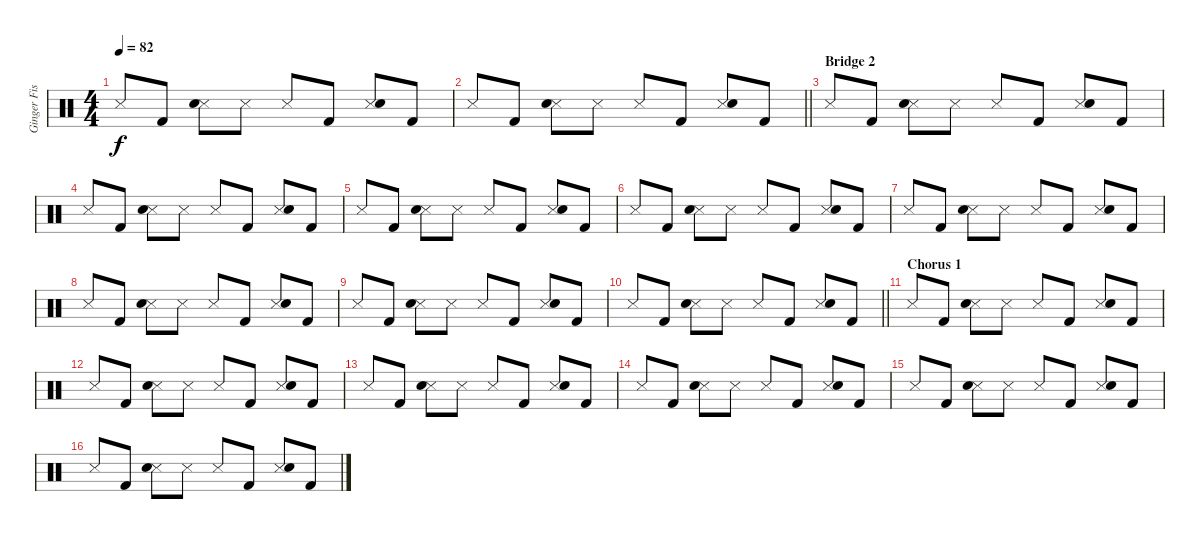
\track ("Ginger Fish" "Ginger Fis") {instrument percussion}
\staff {score}
\articulation defaults
\ts (4 4)
\tempo 82
\clef neutral
\ks c "Metronome (hit)".8{dy f} "Kick (hit) 2".8
("Metronome (hit)" "Snare (hit) 2").8 "Metronome (hit)".8 "Metronome (hit)".8 "Kick (hit) 2".8 ("Metronome (hit)" "Snare (hit) 2").8 "Kick (hit) 2".8 |
\barLineRight lightlight "Metronome (hit)".8 "Kick (hit) 2".8
("Metronome (hit)" "Snare (hit) 2").8 "Metronome (hit)".8 "Metronome (hit)".8 "Kick (hit) 2".8 ("Metronome (hit)" "Snare (hit) 2").8 "Kick (hit) 2".8 |
\section ("" "Bridge 2")
"Metronome (hit)".8 "Kick (hit) 2".8 ("Metronome (hit)" "Snare (hit) 2").8 "Metronome (hit)".8 "Metronome (hit)".8 "Kick (hit) 2".8 ("Metronome (hit)" "Snare (hit) 2").8 "Kick (hit) 2".8 |
"Metronome (hit)".8 "Kick (hit) 2".8 ("Metronome (hit)" "Snare (hit) 2").8 "Metronome (hit)".8 "Metronome (hit)".8 "Kick (hit) 2".8 ("Metronome (hit)" "Snare (hit) 2").8 "Kick (hit) 2".8 |
"Metronome (hit)".8 "Kick (hit) 2".8 ("Metronome (hit)" "Snare (hit) 2").8 "Metronome (hit)".8 "Metronome (hit)".8 "Kick (hit) 2".8 ("Metronome (hit)" "Snare (hit) 2").8 "Kick (hit) 2".8 |
"Metronome (hit)".8 "Kick (hit) 2".8 ("Metronome (hit)" "Snare (hit) 2").8 "Metronome (hit)".8 "Metronome (hit)".8 "Kick (hit) 2".8 ("Metronome (hit)" "Snare (hit) 2").8 "Kick (hit) 2".8 |
"Metronome (hit)".8 "Kick (hit) 2".8 ("Metronome (hit)" "Snare (hit) 2").8 "Metronome (hit)".8 "Metronome (hit)".8 "Kick (hit) 2".8 ("Metronome (hit)" "Snare (hit) 2").8 "Kick (hit) 2".8 |
"Metronome (hit)".8 "Kick (hit) 2".8 ("Metronome (hit)" "Snare (hit) 2").8 "Metronome (hit)".8 "Metronome (hit)".8 "Kick (hit) 2".8 ("Metronome (hit)" "Snare (hit) 2").8 "Kick (hit) 2".8 |
"Metronome (hit)".8 "Kick (hit) 2".8 ("Metronome (hit)" "Snare (hit) 2").8 "Metronome (hit)".8 "Metronome (hit)".8 "Kick (hit) 2".8 ("Metronome (hit)" "Snare (hit) 2").8 "Kick (hit) 2".8 |
\barLineRight lightlight "Metronome (hit)".8 "Kick (hit) 2".8
("Metronome (hit)" "Snare (hit) 2").8 "Metronome (hit)".8 "Metronome (hit)".8 "Kick (hit) 2".8 ("Metronome (hit)" "Snare (hit) 2").8 "Kick (hit) 2".8 |
\section ("" "Chorus 1")
"Metronome (hit)".8 "Kick (hit) 2".8 ("Metronome (hit)" "Snare (hit) 2").8 "Metronome (hit)".8 "Metronome (hit)".8 "Kick (hit) 2".8 ("Metronome (hit)" "Snare (hit) 2").8 "Kick (hit) 2".8 |
"Metronome (hit)".8 "Kick (hit) 2".8 ("Metronome (hit)" "Snare (hit) 2").8 "Metronome (hit)".8 "Metronome (hit)".8 "Kick (hit) 2".8 ("Metronome (hit)" "Snare (hit) 2").8 "Kick (hit) 2".8 |
"Metronome (hit)".8 "Kick (hit) 2".8 ("Metronome (hit)" "Snare (hit) 2").8 "Metronome (hit)".8 "Metronome (hit)".8 "Kick (hit) 2".8 ("Metronome (hit)" "Snare (hit) 2").8 "Kick (hit) 2".8 |
"Metronome (hit)".8 "Kick (hit) 2".8 ("Metronome (hit)" "Snare (hit) 2").8 "Metronome (hit)".8 "Metronome (hit)".8 "Kick (hit) 2".8 ("Metronome (hit)" "Snare (hit) 2").8 "Kick (hit) 2".8 |
"Metronome (hit)".8 "Kick (hit) 2".8 ("Metronome (hit)" "Snare (hit) 2").8 "Metronome (hit)".8 "Metronome (hit)".8 "Kick (hit) 2".8 ("Metronome (hit)" "Snare (hit) 2").8 "Kick (hit) 2".8 |
"Metronome (hit)".8 "Kick (hit) 2".8 ("Metronome (hit)" "Snare (hit) 2").8 "Metronome (hit)".8 "Metronome (hit)".8 "Kick (hit) 2".8 ("Metronome (hit)" "Snare (hit) 2").8 "Kick (hit) 2".8
